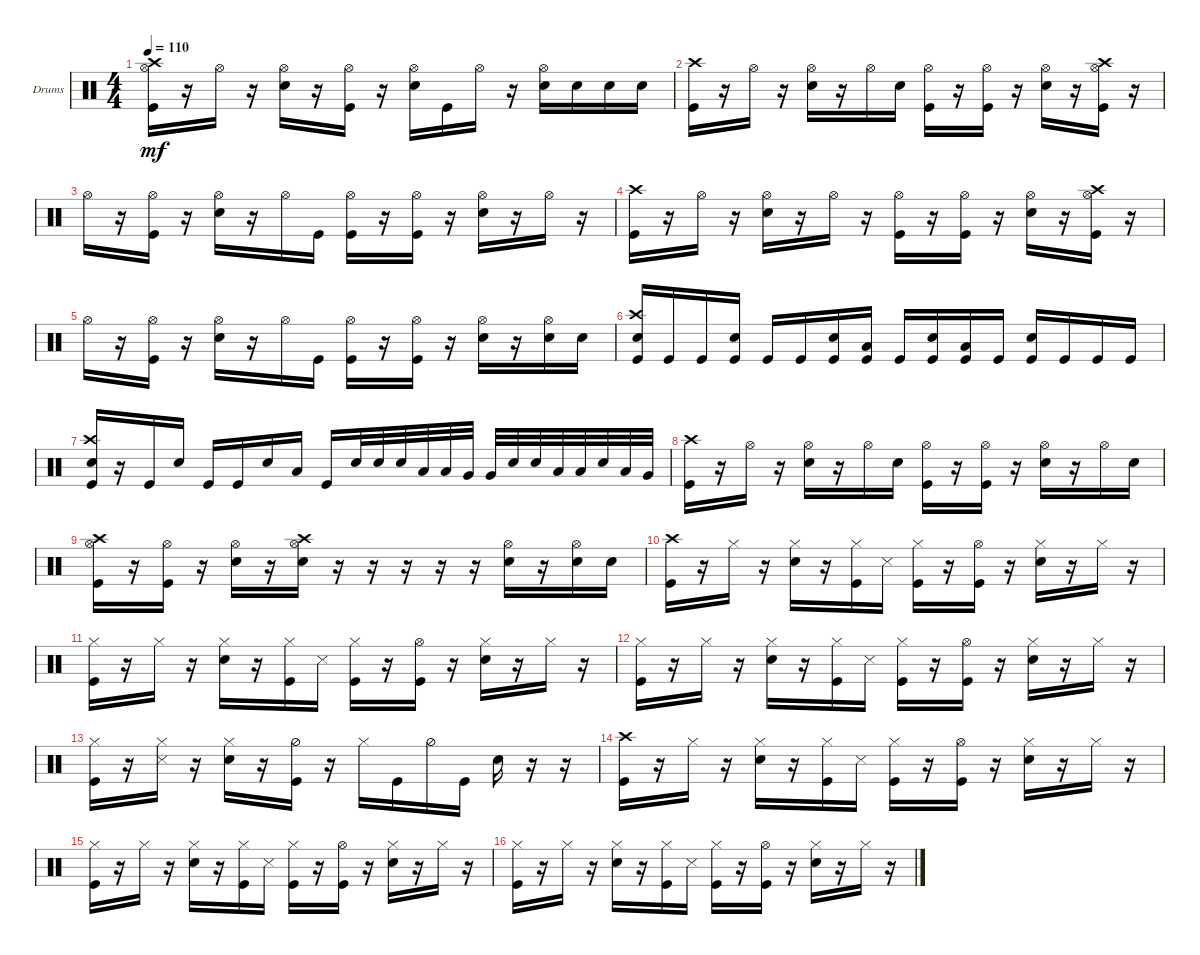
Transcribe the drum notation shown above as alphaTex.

\defaultSystemsLayout 4
\bracketExtendMode groupsimilarinstruments
\firstSystemTrackNameOrientation horizontal
\otherSystemsTrackNameOrientation horizontal
\track ("Drumkit" "Drums") {instrument percussion}
\staff {score}
\articulation defaults
\ts (4 4)
\tempo 110
\clef neutral
\scale
0.333333
\ks c
("Hi-Hat (open)" "Kick (hit)" "Crash high (hit)").16{dy mf} r.16 "Hi-Hat (open)".16 r.16 ("Hi-Hat (open)" "Snare (hit) 2").16 r.16 ("Hi-Hat (open)" "Kick (hit)").16 r.16 ("Hi-Hat (open)" "Snare (hit) 2").16 "Kick (hit)".16 "Hi-Hat (open)".16 r.16 ("Snare (hit) 2" "Hi-Hat (open)").16 "Snare (hit) 2".16 "Snare (hit) 2".16 "Snare (hit) 2".16 |
\scale
0.333333 ("Kick (hit)" "Crash high (hit)").16 r.16 "Hi-Hat (open)".16 r.16 ("Hi-Hat (open)" "Snare (hit) 2").16 r.16 "Hi-Hat (open)".16 "Snare (hit) 2".16 ("Hi-Hat (open)" "Kick (hit)").16 r.16 ("Hi-Hat (open)" "Kick (hit)").16 r.16 ("Hi-Hat (open)" "Snare (hit) 2").16 r.16 ("Hi-Hat (open)" "Kick (hit)" "Crash high (hit)").16 r.16 |
\scale
0.333333 "Hi-Hat (open)".16 r.16 ("Hi-Hat (open)" "Kick (hit)").16 r.16 ("Snare (hit) 2" "Hi-Hat (open)").16 r.16 "Hi-Hat (open)".16 "Kick (hit)".16 ("Hi-Hat (open)" "Kick (hit)").16 r.16 ("Hi-Hat (open)" "Kick (hit)").16 r.16 ("Hi-Hat (open)" "Snare (hit) 2").16 r.16 "Hi-Hat (open)".16 r.16 |
\scale
0.333333 ("Kick (hit)" "Crash high (hit)").16 r.16 "Hi-Hat (open)".16 r.16 ("Hi-Hat (open)" "Snare (hit) 2").16 r.16 "Hi-Hat (open)".16 r.16 ("Hi-Hat (open)" "Kick (hit)").16 r.16 ("Hi-Hat (open)" "Kick (hit)").16 r.16 ("Hi-Hat (open)" "Snare (hit) 2").16 r.16 ("Hi-Hat (open)" "Kick (hit)" "Crash high (hit)").16 r.16 |
\scale
0.333333 "Hi-Hat (open)".16 r.16 ("Hi-Hat (open)" "Kick (hit)").16 r.16 ("Snare (hit) 2" "Hi-Hat (open)").16 r.16 "Hi-Hat (open)".16 "Kick (hit)".16 ("Hi-Hat (open)" "Kick (hit)").16 r.16 ("Hi-Hat (open)" "Kick (hit)").16 r.16 ("Hi-Hat (open)" "Snare (hit) 2").16 r.16 ("Hi-Hat (open)" "Snare (hit) 2").16 "Snare (hit) 2".16 |
\scale
0.333333 ("Snare (hit) 2" "Kick (hit)" "Crash high (hit)").16 "Kick (hit)".16 "Kick (hit)".16 ("Snare (hit) 2" "Kick (hit)").16 "Kick (hit)".16 "Kick (hit)".16 ("Snare (hit) 2" "Kick (hit)").16 ("Low Tom (hit)" "Kick (hit)").16 "Kick (hit)".16 ("Snare (hit) 2" "Kick (hit)").16 ("Low Tom (hit)" "Kick (hit)").16 "Kick (hit)".16 ("Snare (hit) 2" "Kick (hit)").16 "Kick (hit)".16 "Kick (hit)".16 "Kick (hit)".16 |
\scale
0.333333 ("Snare (hit) 2" "Kick (hit)" "Crash high (hit)").16 r.16 "Kick (hit)".16 "Snare (hit) 2".16 "Kick (hit)".16 "Kick (hit)".16 "Snare (hit) 2".16 "Low Tom (hit)".16 "Kick (hit)".16 "Snare (hit) 2".32 "Snare (hit) 2".32 "Snare (hit) 2".32 "Low Tom (hit)".32 "Low Tom (hit)".32 "Very Low Tom (hit)".32 "Very Low Tom (hit)".32 "Snare (hit) 2".32 "Snare (hit) 2".32 "Low Tom (hit)".32 "Low Tom (hit)".32 "Snare (hit) 2".32 "Low Tom (hit)".32 "Very Low Tom (hit)".32 |
\scale
0.333333 ("Kick (hit)" "Crash high (hit)").16 r.16 "Hi-Hat (open)".16 r.16 ("Hi-Hat (open)" "Snare (hit) 2").16 r.16 "Hi-Hat (open)".16 "Snare (hit) 2".16 ("Hi-Hat (open)" "Kick (hit)").16 r.16 ("Hi-Hat (open)" "Kick (hit)").16 r.16 ("Hi-Hat (open)" "Snare (hit) 2").16 r.16 "Hi-Hat (open)".16 "Snare (hit) 2".16 |
\scale
0.333333 ("Hi-Hat (open)" "Kick (hit)" "Crash high (hit)").16 r.16 ("Hi-Hat (open)" "Kick (hit)").16 r.16 ("Snare (hit) 2" "Hi-Hat (open)").16 r.16 ("Hi-Hat (open)" "Snare (hit) 2" "Crash high (hit)").16 r.16 r.16 r.16 r.16 r.16 ("Hi-Hat (open)" "Snare (hit) 2").16 r.16 ("Hi-Hat (open)" "Snare (hit) 2").16 "Snare (hit) 2".16 |
\scale
0.333333 ("Kick (hit)" "Crash high (hit)").16 r.16 "Hi-Hat (closed)".16 r.16 ("Snare (hit) 2" "Hi-Hat (closed)").16 r.16 ("Hi-Hat (closed)" "Kick (hit)").16 "Snare (side stick) 3".16 ("Hi-Hat (closed)" "Kick (hit)").16 r.16 ("Hi-Hat (open)" "Kick (hit)").16 r.16 ("Hi-Hat (closed)" "Snare (hit) 2").16 r.16 "Hi-Hat (closed)".16 r.16 |
\scale
0.333333 ("Kick (hit)" "Hi-Hat (closed)").16 r.16 "Hi-Hat (closed)".16 r.16 ("Snare (hit) 2" "Hi-Hat (closed)").16 r.16 ("Hi-Hat (closed)" "Kick (hit)").16 "Snare (side stick) 3".16 ("Hi-Hat (closed)" "Kick (hit)").16 r.16 ("Hi-Hat (open)" "Kick (hit)").16 r.16 ("Hi-Hat (closed)" "Snare (hit) 2").16 r.16 "Hi-Hat (closed)".16 r.16 |
\scale
0.333333 ("Kick (hit)" "Hi-Hat (closed)").16 r.16 "Hi-Hat (closed)".16 r.16 ("Snare (hit) 2" "Hi-Hat (closed)").16 r.16 ("Hi-Hat (closed)" "Kick (hit)").16 "Snare (side stick) 3".16 ("Hi-Hat (closed)" "Kick (hit)").16 r.16 ("Hi-Hat (open)" "Kick (hit)").16 r.16 ("Hi-Hat (closed)" "Snare (hit) 2").16 r.16 "Hi-Hat (closed)".16 r.16 |
\scale
0.333333 ("Hi-Hat (closed)" "Kick (hit)").16 r.16 ("Hi-Hat (closed)" "Snare (side stick) 3").16 r.16 ("Hi-Hat (closed)" "Snare (hit) 2").16 r.16 ("Hi-Hat (half)" "Kick (hit)").16 r.16 "Hi-Hat (closed)".16 "Kick (hit)".16 "Hi-Hat (half)".16 "Kick (hit)".16 "Snare (hit) 2".16 r.16 r.16 |
\scale
0.333333 ("Kick (hit)" "Crash high (hit)").16 r.16 "Hi-Hat (closed)".16 r.16 ("Snare (hit) 2" "Hi-Hat (closed)").16 r.16 ("Hi-Hat (closed)" "Kick (hit)").16 "Snare (side stick) 3".16 ("Hi-Hat (closed)" "Kick (hit)").16 r.16 ("Hi-Hat (open)" "Kick (hit)").16 r.16 ("Hi-Hat (closed)" "Snare (hit) 2").16 r.16 "Hi-Hat (closed)".16 r.16 |
\scale
0.333333 ("Kick (hit)" "Hi-Hat (closed)").16 r.16 "Hi-Hat (closed)".16 r.16 ("Snare (hit) 2" "Hi-Hat (closed)").16 r.16 ("Hi-Hat (closed)" "Kick (hit)").16 "Snare (side stick) 3".16 ("Hi-Hat (closed)" "Kick (hit)").16 r.16 ("Hi-Hat (open)" "Kick (hit)").16 r.16 ("Hi-Hat (closed)" "Snare (hit) 2").16 r.16 "Hi-Hat (closed)".16 r.16 |
\scale
0.333333 ("Kick (hit)" "Hi-Hat (closed)").16 r.16 "Hi-Hat (closed)".16 r.16 ("Snare (hit) 2" "Hi-Hat (closed)").16 r.16 ("Hi-Hat (closed)" "Kick (hit)").16 "Snare (side stick) 3".16 ("Hi-Hat (closed)" "Kick (hit)").16 r.16 ("Hi-Hat (open)" "Kick (hit)").16 r.16 ("Hi-Hat (closed)" "Snare (hit) 2").16 r.16 "Hi-Hat (closed)".16 r.16
